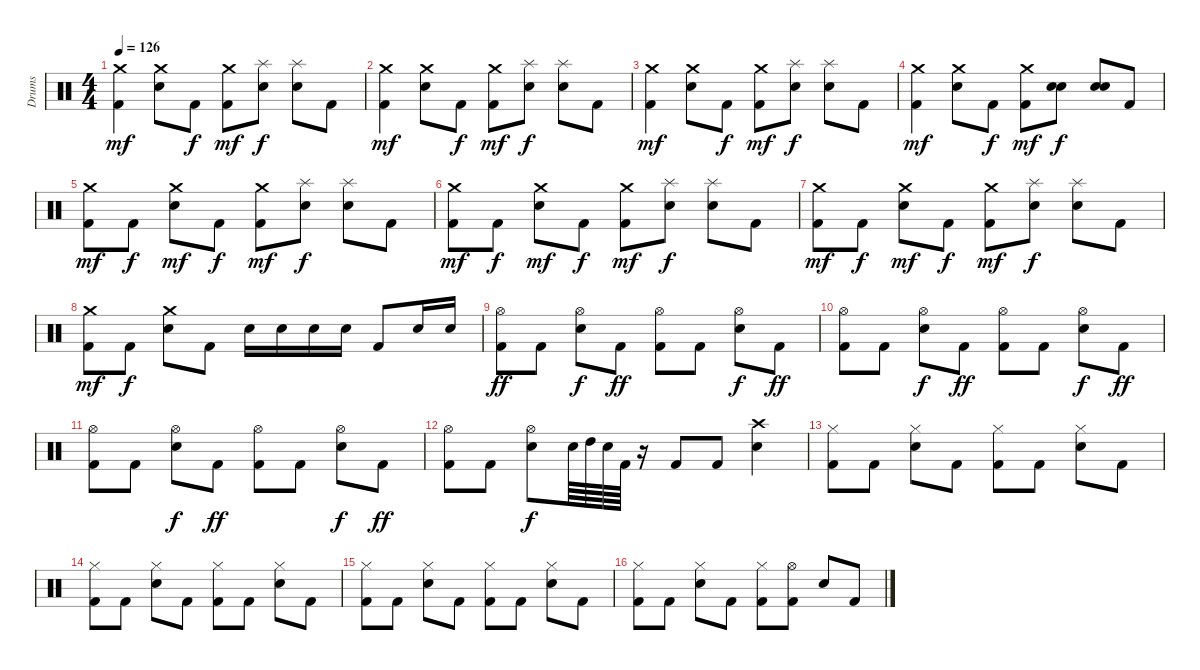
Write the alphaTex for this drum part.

\track ("Drums" "Drums") {instrument percussion}
\staff {score}
\articulation defaults
\ts (4 4)
\tempo 126
\clef neutral
\ks c
("Crash medium (hit)" "Kick (hit) 2").4{dy mf} ("Crash medium (hit)" "Electric Snare (hit)").8 "Kick (hit) 2".8{dy f} ("Crash medium (hit)" "Kick (hit) 2").8{dy mf} ("Splash (hit)" "Electric Snare (hit)").8{dy f} ("Splash (hit)" "Electric Snare (hit)").8 "Kick (hit) 2".8 |
("Crash medium (hit)" "Kick (hit) 2").4{dy mf} ("Crash medium (hit)" "Electric Snare (hit)").8 "Kick (hit) 2".8{dy f} ("Crash medium (hit)" "Kick (hit) 2").8{dy mf} ("Splash (hit)" "Electric Snare (hit)").8{dy f} ("Splash (hit)" "Electric Snare (hit)").8 "Kick (hit) 2".8 |
("Crash medium (hit)" "Kick (hit) 2").4{dy mf} ("Crash medium (hit)" "Electric Snare (hit)").8 "Kick (hit) 2".8{dy f} ("Crash medium (hit)" "Kick (hit) 2").8{dy mf} ("Splash (hit)" "Electric Snare (hit)").8{dy f} ("Splash (hit)" "Electric Snare (hit)").8 "Kick (hit) 2".8 |
("Crash medium (hit)" "Kick (hit) 2").4{dy mf} ("Crash medium (hit)" "Electric Snare (hit)").8 "Kick (hit) 2".8{dy f} ("Crash medium (hit)" "Kick (hit) 2").8{dy mf} ("Electric Snare (hit)" "Electric Snare (hit)").8{dy f} ("Electric Snare (hit)" "Electric Snare (hit)").8 "Kick (hit) 2".8 |
("Crash medium (hit)" "Kick (hit) 2").8{dy mf} "Kick (hit) 2".8{dy f} ("Crash medium (hit)" "Electric Snare (hit)").8{dy mf} "Kick (hit) 2".8{dy f} ("Crash medium (hit)" "Kick (hit) 2").8{dy mf} ("Splash (hit)" "Electric Snare (hit)").8{dy f} ("Splash (hit)" "Electric Snare (hit)").8 "Kick (hit) 2".8 |
("Crash medium (hit)" "Kick (hit) 2").8{dy mf} "Kick (hit) 2".8{dy f} ("Crash medium (hit)" "Electric Snare (hit)").8{dy mf} "Kick (hit) 2".8{dy f} ("Crash medium (hit)" "Kick (hit) 2").8{dy mf} ("Splash (hit)" "Electric Snare (hit)").8{dy f} ("Splash (hit)" "Electric Snare (hit)").8 "Kick (hit) 2".8 |
("Crash medium (hit)" "Kick (hit) 2").8{dy mf} "Kick (hit) 2".8{dy f} ("Crash medium (hit)" "Electric Snare (hit)").8{dy mf} "Kick (hit) 2".8{dy f} ("Crash medium (hit)" "Kick (hit) 2").8{dy mf} ("Splash (hit)" "Electric Snare (hit)").8{dy f} ("Splash (hit)" "Electric Snare (hit)").8 "Kick (hit) 2".8 |
("Crash medium (hit)" "Kick (hit) 2").8{dy mf} "Kick (hit) 2".8{dy f} ("Crash medium (hit)" "Electric Snare (hit)").8 "Kick (hit) 2".8 "Electric Snare (hit)".16 "Electric Snare (hit)".16 "Electric Snare (hit)".16 "Electric Snare (hit)".16 "Kick (hit) 2".8 "Electric Snare (hit)".16 "Electric Snare (hit)".16 |
("Hi-Hat (open)" "Kick (hit) 2").8{dy ff} "Kick (hit) 2".8 ("Hi-Hat (open)" "Electric Snare (hit)").8{dy f} "Kick (hit) 2".8{dy ff} ("Hi-Hat (open)" "Kick (hit) 2").8 "Kick (hit) 2".8 ("Hi-Hat (open)" "Electric Snare (hit)").8{dy f} "Kick (hit) 2".8{dy ff} |
("Hi-Hat (open)" "Kick (hit) 2").8 "Kick (hit) 2".8 ("Hi-Hat (open)" "Electric Snare (hit)").8{dy f} "Kick (hit) 2".8{dy ff} ("Hi-Hat (open)" "Kick (hit) 2").8 "Kick (hit) 2".8 ("Hi-Hat (open)" "Electric Snare (hit)").8{dy f} "Kick (hit) 2".8{dy ff} |
("Hi-Hat (open)" "Kick (hit) 2").8 "Kick (hit) 2".8 ("Hi-Hat (open)" "Electric Snare (hit)").8{dy f} "Kick (hit) 2".8{dy ff} ("Hi-Hat (open)" "Kick (hit) 2").8 "Kick (hit) 2".8 ("Hi-Hat (open)" "Electric Snare (hit)").8{dy f} "Kick (hit) 2".8{dy ff} |
("Hi-Hat (open)" "Kick (hit) 2").8 "Kick (hit) 2".8 ("Hi-Hat (open)" "Electric Snare (hit)").8{dy f} "Electric Snare (hit)".64 "High Tom (hit)".64 "Electric Snare (hit)".64 "Kick (hit) 2".64 r.16 "Kick (hit) 2".8 "Kick (hit) 2".8 ("Crash high (hit)" "Electric Snare (hit)").4 |
("Hi-Hat (closed)" "Kick (hit) 2").8 "Kick (hit) 2".8 ("Hi-Hat (closed)" "Electric Snare (hit)").8 "Kick (hit) 2".8 ("Hi-Hat (closed)" "Kick (hit) 2").8 "Kick (hit) 2".8 ("Hi-Hat (closed)" "Electric Snare (hit)").8 "Kick (hit) 2".8 |
("Hi-Hat (closed)" "Kick (hit) 2").8 "Kick (hit) 2".8 ("Hi-Hat (closed)" "Electric Snare (hit)").8 "Kick (hit) 2".8 ("Hi-Hat (closed)" "Kick (hit) 2").8 "Kick (hit) 2".8 ("Hi-Hat (closed)" "Electric Snare (hit)").8 "Kick (hit) 2".8 |
("Hi-Hat (closed)" "Kick (hit) 2").8 "Kick (hit) 2".8 ("Hi-Hat (closed)" "Electric Snare (hit)").8 "Kick (hit) 2".8 ("Hi-Hat (closed)" "Kick (hit) 2").8 "Kick (hit) 2".8 ("Hi-Hat (closed)" "Electric Snare (hit)").8 "Kick (hit) 2".8 |
("Hi-Hat (closed)" "Kick (hit) 2").8 "Kick (hit) 2".8 ("Hi-Hat (closed)" "Electric Snare (hit)").8 "Kick (hit) 2".8 ("Hi-Hat (closed)" "Kick (hit) 2").8 ("Hi-Hat (open)" "Kick (hit) 2").8 "Electric Snare (hit)".8 "Kick (hit) 2".8
